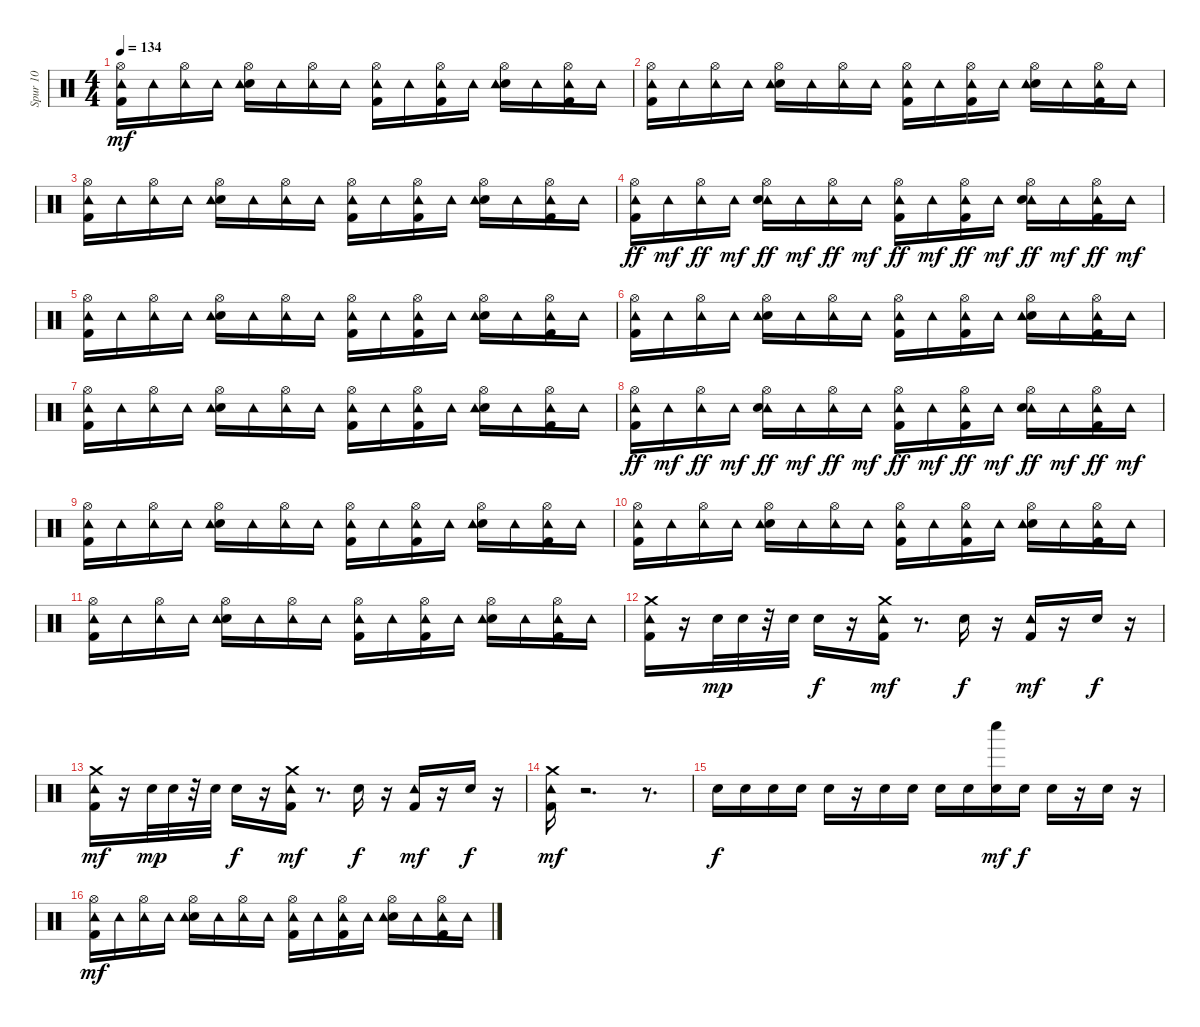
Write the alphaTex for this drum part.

\track ("Spur 10" "Spur 10") {instrument percussion}
\staff {score}
\articulation defaults
\ts (4 4)
\tempo 134
\clef neutral
\ks c
("Hi-Hat (open)" "Kick (hit) 2" "Tambourine (hit)").16{dy mf} "Tambourine (hit)".16 ("Hi-Hat (open)" "Tambourine (hit)").16 "Tambourine (hit)".16 ("Hi-Hat (open)" "Snare (hit) 2" "Tambourine (hit)").16 "Tambourine (hit)".16 ("Hi-Hat (open)" "Tambourine (hit)").16 "Tambourine (hit)".16 ("Hi-Hat (open)" "Kick (hit) 2" "Tambourine (hit)").16 "Tambourine (hit)".16 ("Hi-Hat (open)" "Kick (hit) 2" "Tambourine (hit)").16 "Tambourine (hit)".16 ("Hi-Hat (open)" "Snare (hit) 2" "Tambourine (hit)").16 "Tambourine (hit)".16 ("Hi-Hat (open)" "Kick (hit) 2" "Tambourine (hit)").16 "Tambourine (hit)".16 |
("Hi-Hat (open)" "Kick (hit) 2" "Tambourine (hit)").16 "Tambourine (hit)".16 ("Hi-Hat (open)" "Tambourine (hit)").16 "Tambourine (hit)".16 ("Hi-Hat (open)" "Snare (hit) 2" "Tambourine (hit)").16 "Tambourine (hit)".16 ("Hi-Hat (open)" "Tambourine (hit)").16 "Tambourine (hit)".16 ("Hi-Hat (open)" "Kick (hit) 2" "Tambourine (hit)").16 "Tambourine (hit)".16 ("Hi-Hat (open)" "Kick (hit) 2" "Tambourine (hit)").16 "Tambourine (hit)".16 ("Hi-Hat (open)" "Snare (hit) 2" "Tambourine (hit)").16 "Tambourine (hit)".16 ("Hi-Hat (open)" "Kick (hit) 2" "Tambourine (hit)").16 "Tambourine (hit)".16 |
("Hi-Hat (open)" "Kick (hit) 2" "Tambourine (hit)").16 "Tambourine (hit)".16 ("Hi-Hat (open)" "Tambourine (hit)").16 "Tambourine (hit)".16 ("Hi-Hat (open)" "Snare (hit) 2" "Tambourine (hit)").16 "Tambourine (hit)".16 ("Hi-Hat (open)" "Tambourine (hit)").16 "Tambourine (hit)".16 ("Hi-Hat (open)" "Kick (hit) 2" "Tambourine (hit)").16 "Tambourine (hit)".16 ("Hi-Hat (open)" "Kick (hit) 2" "Tambourine (hit)").16 "Tambourine (hit)".16 ("Hi-Hat (open)" "Snare (hit) 2" "Tambourine (hit)").16 "Tambourine (hit)".16 ("Hi-Hat (open)" "Kick (hit) 2" "Tambourine (hit)").16 "Tambourine (hit)".16 |
("Tambourine (hit)" "Kick (hit) 2" "Hi-Hat (open)").16{dy ff} "Tambourine (hit)".16{dy mf} ("Tambourine (hit)" "Hi-Hat (open)").16{dy ff} "Tambourine (hit)".16{dy mf} ("Tambourine (hit)" "Snare (hit) 2" "Hi-Hat (open)").16{dy ff} "Tambourine (hit)".16{dy mf} ("Tambourine (hit)" "Hi-Hat (open)").16{dy ff} "Tambourine (hit)".16{dy mf} ("Tambourine (hit)" "Kick (hit) 2" "Hi-Hat (open)").16{dy ff} "Tambourine (hit)".16{dy mf} ("Tambourine (hit)" "Kick (hit) 2" "Hi-Hat (open)").16{dy ff} "Tambourine (hit)".16{dy mf} ("Tambourine (hit)" "Snare (hit) 2" "Hi-Hat (open)").16{dy ff} "Tambourine (hit)".16{dy mf} ("Tambourine (hit)" "Kick (hit) 2" "Hi-Hat (open)").16{dy ff} "Tambourine (hit)".16{dy mf} |
("Hi-Hat (open)" "Kick (hit) 2" "Tambourine (hit)").16 "Tambourine (hit)".16 ("Hi-Hat (open)" "Tambourine (hit)").16 "Tambourine (hit)".16 ("Hi-Hat (open)" "Snare (hit) 2" "Tambourine (hit)").16 "Tambourine (hit)".16 ("Hi-Hat (open)" "Tambourine (hit)").16 "Tambourine (hit)".16 ("Hi-Hat (open)" "Kick (hit) 2" "Tambourine (hit)").16 "Tambourine (hit)".16 ("Hi-Hat (open)" "Kick (hit) 2" "Tambourine (hit)").16 "Tambourine (hit)".16 ("Hi-Hat (open)" "Snare (hit) 2" "Tambourine (hit)").16 "Tambourine (hit)".16 ("Hi-Hat (open)" "Kick (hit) 2" "Tambourine (hit)").16 "Tambourine (hit)".16 |
("Hi-Hat (open)" "Kick (hit) 2" "Tambourine (hit)").16 "Tambourine (hit)".16 ("Hi-Hat (open)" "Tambourine (hit)").16 "Tambourine (hit)".16 ("Hi-Hat (open)" "Snare (hit) 2" "Tambourine (hit)").16 "Tambourine (hit)".16 ("Hi-Hat (open)" "Tambourine (hit)").16 "Tambourine (hit)".16 ("Hi-Hat (open)" "Kick (hit) 2" "Tambourine (hit)").16 "Tambourine (hit)".16 ("Hi-Hat (open)" "Kick (hit) 2" "Tambourine (hit)").16 "Tambourine (hit)".16 ("Hi-Hat (open)" "Snare (hit) 2" "Tambourine (hit)").16 "Tambourine (hit)".16 ("Hi-Hat (open)" "Kick (hit) 2" "Tambourine (hit)").16 "Tambourine (hit)".16 |
("Hi-Hat (open)" "Kick (hit) 2" "Tambourine (hit)").16 "Tambourine (hit)".16 ("Hi-Hat (open)" "Tambourine (hit)").16 "Tambourine (hit)".16 ("Hi-Hat (open)" "Snare (hit) 2" "Tambourine (hit)").16 "Tambourine (hit)".16 ("Hi-Hat (open)" "Tambourine (hit)").16 "Tambourine (hit)".16 ("Hi-Hat (open)" "Kick (hit) 2" "Tambourine (hit)").16 "Tambourine (hit)".16 ("Hi-Hat (open)" "Kick (hit) 2" "Tambourine (hit)").16 "Tambourine (hit)".16 ("Hi-Hat (open)" "Snare (hit) 2" "Tambourine (hit)").16 "Tambourine (hit)".16 ("Hi-Hat (open)" "Kick (hit) 2" "Tambourine (hit)").16 "Tambourine (hit)".16 |
("Tambourine (hit)" "Kick (hit) 2" "Hi-Hat (open)").16{dy ff} "Tambourine (hit)".16{dy mf} ("Tambourine (hit)" "Hi-Hat (open)").16{dy ff} "Tambourine (hit)".16{dy mf} ("Tambourine (hit)" "Snare (hit) 2" "Hi-Hat (open)").16{dy ff} "Tambourine (hit)".16{dy mf} ("Tambourine (hit)" "Hi-Hat (open)").16{dy ff} "Tambourine (hit)".16{dy mf} ("Tambourine (hit)" "Kick (hit) 2" "Hi-Hat (open)").16{dy ff} "Tambourine (hit)".16{dy mf} ("Tambourine (hit)" "Kick (hit) 2" "Hi-Hat (open)").16{dy ff} "Tambourine (hit)".16{dy mf} ("Tambourine (hit)" "Snare (hit) 2" "Hi-Hat (open)").16{dy ff} "Tambourine (hit)".16{dy mf} ("Tambourine (hit)" "Kick (hit) 2" "Hi-Hat (open)").16{dy ff} "Tambourine (hit)".16{dy mf} |
("Hi-Hat (open)" "Kick (hit) 2" "Tambourine (hit)").16 "Tambourine (hit)".16 ("Hi-Hat (open)" "Tambourine (hit)").16 "Tambourine (hit)".16 ("Hi-Hat (open)" "Snare (hit) 2" "Tambourine (hit)").16 "Tambourine (hit)".16 ("Hi-Hat (open)" "Tambourine (hit)").16 "Tambourine (hit)".16 ("Hi-Hat (open)" "Kick (hit) 2" "Tambourine (hit)").16 "Tambourine (hit)".16 ("Hi-Hat (open)" "Kick (hit) 2" "Tambourine (hit)").16 "Tambourine (hit)".16 ("Hi-Hat (open)" "Snare (hit) 2" "Tambourine (hit)").16 "Tambourine (hit)".16 ("Hi-Hat (open)" "Kick (hit) 2" "Tambourine (hit)").16 "Tambourine (hit)".16 |
("Hi-Hat (open)" "Kick (hit) 2" "Tambourine (hit)").16 "Tambourine (hit)".16 ("Hi-Hat (open)" "Tambourine (hit)").16 "Tambourine (hit)".16 ("Hi-Hat (open)" "Snare (hit) 2" "Tambourine (hit)").16 "Tambourine (hit)".16 ("Hi-Hat (open)" "Tambourine (hit)").16 "Tambourine (hit)".16 ("Hi-Hat (open)" "Kick (hit) 2" "Tambourine (hit)").16 "Tambourine (hit)".16 ("Hi-Hat (open)" "Kick (hit) 2" "Tambourine (hit)").16 "Tambourine (hit)".16 ("Hi-Hat (open)" "Snare (hit) 2" "Tambourine (hit)").16 "Tambourine (hit)".16 ("Hi-Hat (open)" "Kick (hit) 2" "Tambourine (hit)").16 "Tambourine (hit)".16 |
("Hi-Hat (open)" "Kick (hit) 2" "Tambourine (hit)").16 "Tambourine (hit)".16 ("Hi-Hat (open)" "Tambourine (hit)").16 "Tambourine (hit)".16 ("Hi-Hat (open)" "Snare (hit) 2" "Tambourine (hit)").16 "Tambourine (hit)".16 ("Hi-Hat (open)" "Tambourine (hit)").16 "Tambourine (hit)".16 ("Hi-Hat (open)" "Kick (hit) 2" "Tambourine (hit)").16 "Tambourine (hit)".16 ("Hi-Hat (open)" "Kick (hit) 2" "Tambourine (hit)").16 "Tambourine (hit)".16 ("Hi-Hat (open)" "Snare (hit) 2" "Tambourine (hit)").16 "Tambourine (hit)".16 ("Hi-Hat (open)" "Kick (hit) 2" "Tambourine (hit)").16 "Tambourine (hit)".16 |
("Tambourine (hit)" "Crash medium (hit)" "Kick (hit) 2").16 r.16 "Snare (hit) 2".32{dy mp} "Snare (hit) 2".32 r.32 "Snare (hit) 2".32 "Snare (hit) 2".16{dy f} r.16 ("Tambourine (hit)" "Crash medium (hit)" "Kick (hit) 2").16{dy mf} r.8{d} "Snare (hit) 2".16{dy f} r.16 ("Tambourine (hit)" "Kick (hit) 2").16{dy mf} r.16 "Snare (hit) 2".16{dy f} r.16 |
("Tambourine (hit)" "Kick (hit) 2" "Crash medium (hit)").16{dy mf} r.16 "Snare (hit) 2".32{dy mp} "Snare (hit) 2".32 r.32 "Snare (hit) 2".32 "Snare (hit) 2".16{dy f} r.16 ("Tambourine (hit)" "Kick (hit) 2" "Crash medium (hit)").16{dy mf} r.8{d} "Snare (hit) 2".16{dy f} r.16 ("Tambourine (hit)" "Kick (hit) 2").16{dy mf} r.16 "Snare (hit) 2".16{dy f} r.16 |
("Tambourine (hit)" "Crash medium (hit)" "Kick (hit) 2").16{dy mf} r.2{d} r.8{d} |
"Snare (hit) 2".16{dy f} "Snare (hit) 2".16 "Snare (hit) 2".16 "Snare (hit) 2".16 "Snare (hit) 2".16 r.16 "Snare (hit) 2".16 "Snare (hit) 2".16 "Snare (hit) 2".16 "Snare (hit) 2".16 ("Whistle low (hit)" "Snare (hit) 2").16{dy mf} "Snare (hit) 2".16{dy f} "Snare (hit) 2".16 r.16 "Snare (hit) 2".16 r.16 |
("Hi-Hat (open)" "Kick (hit) 2" "Tambourine (hit)").16{dy mf} "Tambourine (hit)".16 ("Hi-Hat (open)" "Tambourine (hit)").16 "Tambourine (hit)".16 ("Hi-Hat (open)" "Snare (hit) 2" "Tambourine (hit)").16 "Tambourine (hit)".16 ("Hi-Hat (open)" "Tambourine (hit)").16 "Tambourine (hit)".16 ("Hi-Hat (open)" "Kick (hit) 2" "Tambourine (hit)").16 "Tambourine (hit)".16 ("Hi-Hat (open)" "Kick (hit) 2" "Tambourine (hit)").16 "Tambourine (hit)".16 ("Hi-Hat (open)" "Snare (hit) 2" "Tambourine (hit)").16 "Tambourine (hit)".16 ("Hi-Hat (open)" "Kick (hit) 2" "Tambourine (hit)").16 "Tambourine (hit)".16
